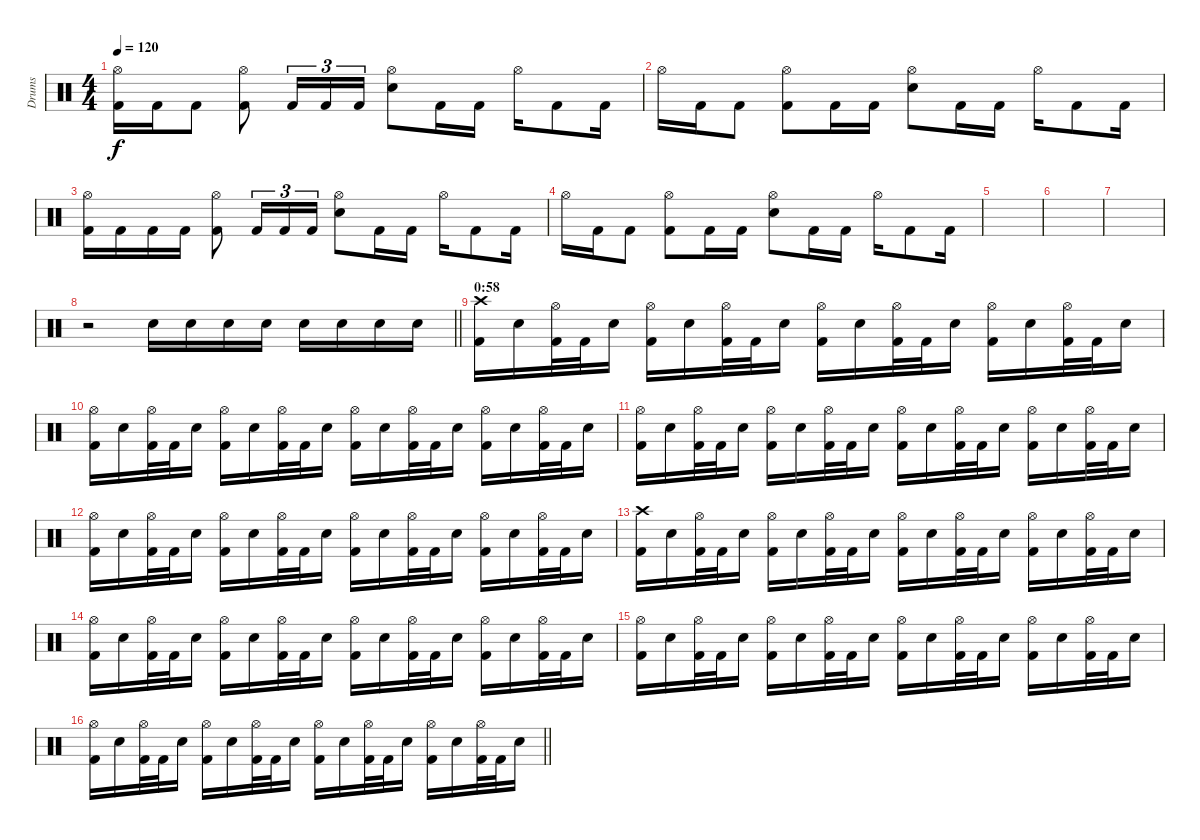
\track ("Drums" "Drums") {instrument percussion}
\staff {score}
\articulation defaults
\ts (4 4)
\tempo 120
\clef neutral
\ks c
("Hi-Hat (open)" "Kick (hit) 2").16{dy f} "Kick (hit) 2".16 "Kick (hit) 2".8 ("Hi-Hat (open)" "Kick (hit) 2").8 "Kick (hit) 2".16{tu (3 2)} "Kick (hit) 2".16{tu (3 2)} "Kick (hit) 2".16{tu (3 2)} ("Hi-Hat (open)" "Electric Snare (hit)").8 "Kick (hit) 2".16 "Kick (hit) 2".16 "Hi-Hat (open)".16 "Kick (hit) 2".8 "Kick (hit) 2".16 |
"Hi-Hat (open)".16 "Kick (hit) 2".16 "Kick (hit) 2".8 ("Hi-Hat (open)" "Kick (hit) 2").8 "Kick (hit) 2".16 "Kick (hit) 2".16 ("Hi-Hat (open)" "Electric Snare (hit)").8 "Kick (hit) 2".16 "Kick (hit) 2".16 "Hi-Hat (open)".16 "Kick (hit) 2".8 "Kick (hit) 2".16 |
("Hi-Hat (open)" "Kick (hit) 2").16 "Kick (hit) 2".16 "Kick (hit) 2".16 "Kick (hit) 2".16 ("Hi-Hat (open)" "Kick (hit) 2").8 "Kick (hit) 2".16{tu (3 2)} "Kick (hit) 2".16{tu (3 2)} "Kick (hit) 2".16{tu (3 2)} ("Hi-Hat (open)" "Electric Snare (hit)").8 "Kick (hit) 2".16 "Kick (hit) 2".16 "Hi-Hat (open)".16 "Kick (hit) 2".8 "Kick (hit) 2".16 |
"Hi-Hat (open)".16 "Kick (hit) 2".16 "Kick (hit) 2".8 ("Hi-Hat (open)" "Kick (hit) 2").8 "Kick (hit) 2".16 "Kick (hit) 2".16 ("Hi-Hat (open)" "Electric Snare (hit)").8 "Kick (hit) 2".16 "Kick (hit) 2".16 "Hi-Hat (open)".16 "Kick (hit) 2".8 "Kick (hit) 2".16 |
|
|
|
\barLineRight lightlight
r.2 "Electric Snare (hit)".16 "Electric Snare (hit)".16 "Electric Snare (hit)".16 "Electric Snare (hit)".16 "Electric Snare (hit)".16 "Electric Snare (hit)".16 "Electric Snare (hit)".16 "Electric Snare (hit)".16 |
\section ("" "0:58")
("Crash high (hit)" "Kick (hit) 2").16 "Electric Snare (hit)".16 ("Hi-Hat (open)" "Kick (hit) 2").32 "Kick (hit) 2".32 "Electric Snare (hit)".16 ("Hi-Hat (open)" "Kick (hit) 2").16 "Electric Snare (hit)".16 ("Hi-Hat (open)" "Kick (hit) 2").32 "Kick (hit) 2".32 "Electric Snare (hit)".16 ("Hi-Hat (open)" "Kick (hit) 2").16 "Electric Snare (hit)".16 ("Hi-Hat (open)" "Kick (hit) 2").32 "Kick (hit) 2".32 "Electric Snare (hit)".16 ("Hi-Hat (open)" "Kick (hit) 2").16 "Electric Snare (hit)".16 ("Hi-Hat (open)" "Kick (hit) 2").32 "Kick (hit) 2".32 "Electric Snare (hit)".16 |
("Hi-Hat (open)" "Kick (hit) 2").16 "Electric Snare (hit)".16 ("Hi-Hat (open)" "Kick (hit) 2").32 "Kick (hit) 2".32 "Electric Snare (hit)".16 ("Hi-Hat (open)" "Kick (hit) 2").16 "Electric Snare (hit)".16 ("Hi-Hat (open)" "Kick (hit) 2").32 "Kick (hit) 2".32 "Electric Snare (hit)".16 ("Hi-Hat (open)" "Kick (hit) 2").16 "Electric Snare (hit)".16 ("Hi-Hat (open)" "Kick (hit) 2").32 "Kick (hit) 2".32 "Electric Snare (hit)".16 ("Hi-Hat (open)" "Kick (hit) 2").16 "Electric Snare (hit)".16 ("Hi-Hat (open)" "Kick (hit) 2").32 "Kick (hit) 2".32 "Electric Snare (hit)".16 |
("Hi-Hat (open)" "Kick (hit) 2").16 "Electric Snare (hit)".16 ("Hi-Hat (open)" "Kick (hit) 2").32 "Kick (hit) 2".32 "Electric Snare (hit)".16 ("Hi-Hat (open)" "Kick (hit) 2").16 "Electric Snare (hit)".16 ("Hi-Hat (open)" "Kick (hit) 2").32 "Kick (hit) 2".32 "Electric Snare (hit)".16 ("Hi-Hat (open)" "Kick (hit) 2").16 "Electric Snare (hit)".16 ("Hi-Hat (open)" "Kick (hit) 2").32 "Kick (hit) 2".32 "Electric Snare (hit)".16 ("Hi-Hat (open)" "Kick (hit) 2").16 "Electric Snare (hit)".16 ("Hi-Hat (open)" "Kick (hit) 2").32 "Kick (hit) 2".32 "Electric Snare (hit)".16 |
("Hi-Hat (open)" "Kick (hit) 2").16 "Electric Snare (hit)".16 ("Hi-Hat (open)" "Kick (hit) 2").32 "Kick (hit) 2".32 "Electric Snare (hit)".16 ("Hi-Hat (open)" "Kick (hit) 2").16 "Electric Snare (hit)".16 ("Hi-Hat (open)" "Kick (hit) 2").32 "Kick (hit) 2".32 "Electric Snare (hit)".16 ("Hi-Hat (open)" "Kick (hit) 2").16 "Electric Snare (hit)".16 ("Hi-Hat (open)" "Kick (hit) 2").32 "Kick (hit) 2".32 "Electric Snare (hit)".16 ("Hi-Hat (open)" "Kick (hit) 2").16 "Electric Snare (hit)".16 ("Hi-Hat (open)" "Kick (hit) 2").32 "Kick (hit) 2".32 "Electric Snare (hit)".16 |
("Crash high (hit)" "Kick (hit) 2").16 "Electric Snare (hit)".16 ("Hi-Hat (open)" "Kick (hit) 2").32 "Kick (hit) 2".32 "Electric Snare (hit)".16 ("Hi-Hat (open)" "Kick (hit) 2").16 "Electric Snare (hit)".16 ("Hi-Hat (open)" "Kick (hit) 2").32 "Kick (hit) 2".32 "Electric Snare (hit)".16 ("Hi-Hat (open)" "Kick (hit) 2").16 "Electric Snare (hit)".16 ("Hi-Hat (open)" "Kick (hit) 2").32 "Kick (hit) 2".32 "Electric Snare (hit)".16 ("Hi-Hat (open)" "Kick (hit) 2").16 "Electric Snare (hit)".16 ("Hi-Hat (open)" "Kick (hit) 2").32 "Kick (hit) 2".32 "Electric Snare (hit)".16 |
("Hi-Hat (open)" "Kick (hit) 2").16 "Electric Snare (hit)".16 ("Hi-Hat (open)" "Kick (hit) 2").32 "Kick (hit) 2".32 "Electric Snare (hit)".16 ("Hi-Hat (open)" "Kick (hit) 2").16 "Electric Snare (hit)".16 ("Hi-Hat (open)" "Kick (hit) 2").32 "Kick (hit) 2".32 "Electric Snare (hit)".16 ("Hi-Hat (open)" "Kick (hit) 2").16 "Electric Snare (hit)".16 ("Hi-Hat (open)" "Kick (hit) 2").32 "Kick (hit) 2".32 "Electric Snare (hit)".16 ("Hi-Hat (open)" "Kick (hit) 2").16 "Electric Snare (hit)".16 ("Hi-Hat (open)" "Kick (hit) 2").32 "Kick (hit) 2".32 "Electric Snare (hit)".16 |
("Hi-Hat (open)" "Kick (hit) 2").16 "Electric Snare (hit)".16 ("Hi-Hat (open)" "Kick (hit) 2").32 "Kick (hit) 2".32 "Electric Snare (hit)".16 ("Hi-Hat (open)" "Kick (hit) 2").16 "Electric Snare (hit)".16 ("Hi-Hat (open)" "Kick (hit) 2").32 "Kick (hit) 2".32 "Electric Snare (hit)".16 ("Hi-Hat (open)" "Kick (hit) 2").16 "Electric Snare (hit)".16 ("Hi-Hat (open)" "Kick (hit) 2").32 "Kick (hit) 2".32 "Electric Snare (hit)".16 ("Hi-Hat (open)" "Kick (hit) 2").16 "Electric Snare (hit)".16 ("Hi-Hat (open)" "Kick (hit) 2").32 "Kick (hit) 2".32 "Electric Snare (hit)".16 |
\barLineRight lightlight
("Hi-Hat (open)" "Kick (hit) 2").16 "Electric Snare (hit)".16 ("Hi-Hat (open)" "Kick (hit) 2").32 "Kick (hit) 2".32 "Electric Snare (hit)".16 ("Hi-Hat (open)" "Kick (hit) 2").16 "Electric Snare (hit)".16 ("Hi-Hat (open)" "Kick (hit) 2").32 "Kick (hit) 2".32 "Electric Snare (hit)".16 ("Hi-Hat (open)" "Kick (hit) 2").16 "Electric Snare (hit)".16 ("Hi-Hat (open)" "Kick (hit) 2").32 "Kick (hit) 2".32 "Electric Snare (hit)".16 ("Hi-Hat (open)" "Kick (hit) 2").16 "Electric Snare (hit)".16 ("Hi-Hat (open)" "Kick (hit) 2").32 "Kick (hit) 2".32 "Electric Snare (hit)".16
